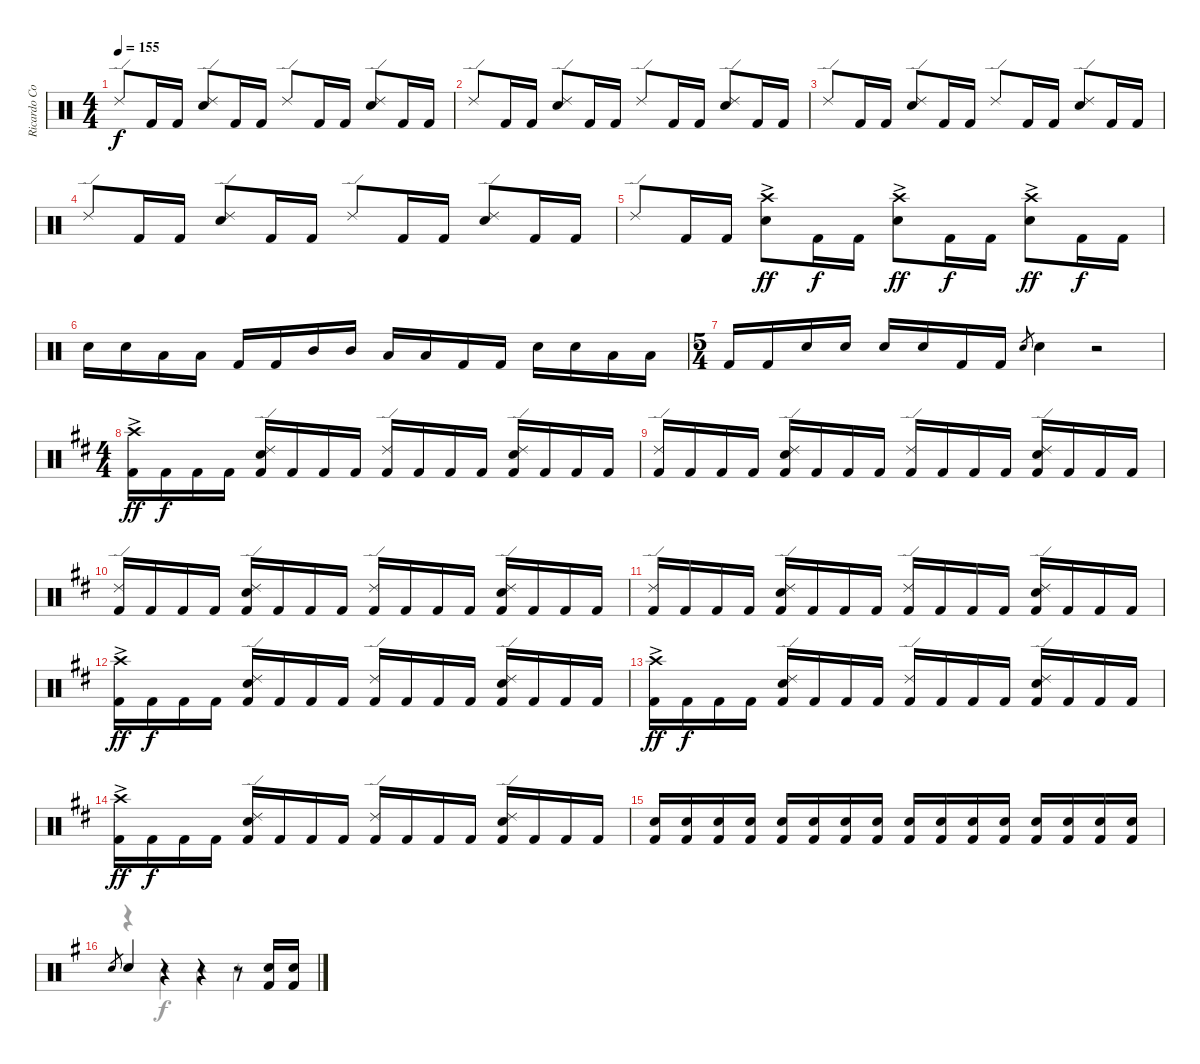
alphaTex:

\track ("Ricardo Confessori" "Ricardo Co") {instrument percussion}
\staff {score}
\articulation defaults
\voice
\ts (4 4)
\tempo 155
\clef neutral
\ks aminor "Ride (edge) 2".8{dy f} "Kick (hit) 2".16 "Kick (hit) 2".16
("Electric Snare (hit)" "Ride (edge) 2").8 "Kick (hit) 2".16 "Kick (hit) 2".16 "Ride (edge) 2".8 "Kick (hit) 2".16 "Kick (hit) 2".16 ("Electric Snare (hit)" "Ride (edge) 2").8 "Kick (hit) 2".16 "Kick (hit) 2".16 |
"Ride (edge) 2".8 "Kick (hit) 2".16 "Kick (hit) 2".16 ("Electric Snare (hit)" "Ride (edge) 2").8 "Kick (hit) 2".16 "Kick (hit) 2".16 "Ride (edge) 2".8 "Kick (hit) 2".16 "Kick (hit) 2".16 ("Electric Snare (hit)" "Ride (edge) 2").8 "Kick (hit) 2".16 "Kick (hit) 2".16 |
"Ride (edge) 2".8 "Kick (hit) 2".16 "Kick (hit) 2".16 ("Electric Snare (hit)" "Ride (edge) 2").8 "Kick (hit) 2".16 "Kick (hit) 2".16 "Ride (edge) 2".8 "Kick (hit) 2".16 "Kick (hit) 2".16 ("Electric Snare (hit)" "Ride (edge) 2").8 "Kick (hit) 2".16 "Kick (hit) 2".16 |
"Ride (edge) 2".8 "Kick (hit) 2".16 "Kick (hit) 2".16 ("Electric Snare (hit)" "Ride (edge) 2").8 "Kick (hit) 2".16 "Kick (hit) 2".16 "Ride (edge) 2".8 "Kick (hit) 2".16 "Kick (hit) 2".16 ("Electric Snare (hit)" "Ride (edge) 2").8 "Kick (hit) 2".16 "Kick (hit) 2".16 |
"Ride (edge) 2".8 "Kick (hit) 2".16 "Kick (hit) 2".16 ("Electric Snare (hit)"{ac} "Crash high (hit)"{ac}).8{dy ff} "Kick (hit) 2".16{dy f} "Kick (hit) 2".16 ("Electric Snare (hit)"{ac} "Crash high (hit)"{ac}).8{dy ff} "Kick (hit) 2".16{dy f} "Kick (hit) 2".16 ("Electric Snare (hit)"{ac} "Crash high (hit)"{ac}).8{dy ff} "Kick (hit) 2".16{dy f} "Kick (hit) 2".16 |
"Electric Snare (hit)".16 "Electric Snare (hit)".16 "Low Tom (hit)".16 "Low Tom (hit)".16 "Kick (hit) 2".16 "Kick (hit) 2".16 "Mid Tom (hit)".16 "Mid Tom (hit)".16 "Low Tom (hit)".16 "Low Tom (hit)".16 "Kick (hit) 2".16 "Kick (hit) 2".16 "Electric Snare (hit)".16 "Electric Snare (hit)".16 "Low Tom (hit)".16 "Low Tom (hit)".16 |
\ts (5 4)
"Kick (hit) 2".16 "Kick (hit) 2".16 "Electric Snare (hit)".16 "Electric Snare (hit)".16 "Electric Snare (hit)".16 "Electric Snare (hit)".16 "Kick (hit) 2".16 "Kick (hit) 2".16 "Electric Snare (hit)".8{gr} "Electric Snare (hit)".4 r.2 |
\ts (4 4)
\ks d
("Crash high (hit)"{ac} "Kick (hit) 2"{ac}).16{dy ff} "Kick (hit) 2".16{dy f} "Kick (hit) 2".16 "Kick (hit) 2".16 ("Kick (hit) 2" "Electric Snare (hit)" "Ride (edge) 2").16 "Kick (hit) 2".16 "Kick (hit) 2".16 "Kick (hit) 2".16 ("Kick (hit) 2" "Ride (edge) 2").16 "Kick (hit) 2".16 "Kick (hit) 2".16 "Kick (hit) 2".16 ("Kick (hit) 2" "Electric Snare (hit)" "Ride (edge) 2").16 "Kick (hit) 2".16 "Kick (hit) 2".16 "Kick (hit) 2".16 |
("Ride (edge) 2" "Kick (hit) 2").16 "Kick (hit) 2".16 "Kick (hit) 2".16 "Kick (hit) 2".16 ("Kick (hit) 2" "Electric Snare (hit)" "Ride (edge) 2").16 "Kick (hit) 2".16 "Kick (hit) 2".16 "Kick (hit) 2".16 ("Kick (hit) 2" "Ride (edge) 2").16 "Kick (hit) 2".16 "Kick (hit) 2".16 "Kick (hit) 2".16 ("Kick (hit) 2" "Electric Snare (hit)" "Ride (edge) 2").16 "Kick (hit) 2".16 "Kick (hit) 2".16 "Kick (hit) 2".16 |
("Ride (edge) 2" "Kick (hit) 2").16 "Kick (hit) 2".16 "Kick (hit) 2".16 "Kick (hit) 2".16 ("Kick (hit) 2" "Electric Snare (hit)" "Ride (edge) 2").16 "Kick (hit) 2".16 "Kick (hit) 2".16 "Kick (hit) 2".16 ("Kick (hit) 2" "Ride (edge) 2").16 "Kick (hit) 2".16 "Kick (hit) 2".16 "Kick (hit) 2".16 ("Kick (hit) 2" "Electric Snare (hit)" "Ride (edge) 2").16 "Kick (hit) 2".16 "Kick (hit) 2".16 "Kick (hit) 2".16 |
("Ride (edge) 2" "Kick (hit) 2").16 "Kick (hit) 2".16 "Kick (hit) 2".16 "Kick (hit) 2".16 ("Kick (hit) 2" "Electric Snare (hit)" "Ride (edge) 2").16 "Kick (hit) 2".16 "Kick (hit) 2".16 "Kick (hit) 2".16 ("Kick (hit) 2" "Ride (edge) 2").16 "Kick (hit) 2".16 "Kick (hit) 2".16 "Kick (hit) 2".16 ("Kick (hit) 2" "Electric Snare (hit)" "Ride (edge) 2").16 "Kick (hit) 2".16 "Kick (hit) 2".16 "Kick (hit) 2".16 |
("Crash high (hit)"{ac} "Kick (hit) 2"{ac}).16{dy ff} "Kick (hit) 2".16{dy f} "Kick (hit) 2".16 "Kick (hit) 2".16 ("Kick (hit) 2" "Electric Snare (hit)" "Ride (edge) 2").16 "Kick (hit) 2".16 "Kick (hit) 2".16 "Kick (hit) 2".16 ("Kick (hit) 2" "Ride (edge) 2").16 "Kick (hit) 2".16 "Kick (hit) 2".16 "Kick (hit) 2".16 ("Kick (hit) 2" "Electric Snare (hit)" "Ride (edge) 2").16 "Kick (hit) 2".16 "Kick (hit) 2".16 "Kick (hit) 2".16 |
("Crash high (hit)"{ac} "Kick (hit) 2"{ac}).16{dy ff} "Kick (hit) 2".16{dy f} "Kick (hit) 2".16 "Kick (hit) 2".16 ("Kick (hit) 2" "Electric Snare (hit)" "Ride (edge) 2").16 "Kick (hit) 2".16 "Kick (hit) 2".16 "Kick (hit) 2".16 ("Kick (hit) 2" "Ride (edge) 2").16 "Kick (hit) 2".16 "Kick (hit) 2".16 "Kick (hit) 2".16 ("Kick (hit) 2" "Electric Snare (hit)" "Ride (edge) 2").16 "Kick (hit) 2".16 "Kick (hit) 2".16 "Kick (hit) 2".16 |
("Crash high (hit)"{ac} "Kick (hit) 2"{ac}).16{dy ff} "Kick (hit) 2".16{dy f} "Kick (hit) 2".16 "Kick (hit) 2".16 ("Kick (hit) 2" "Electric Snare (hit)" "Ride (edge) 2").16 "Kick (hit) 2".16 "Kick (hit) 2".16 "Kick (hit) 2".16 ("Kick (hit) 2" "Ride (edge) 2").16 "Kick (hit) 2".16 "Kick (hit) 2".16 "Kick (hit) 2".16 ("Kick (hit) 2" "Electric Snare (hit)" "Ride (edge) 2").16 "Kick (hit) 2".16 "Kick (hit) 2".16 "Kick (hit) 2".16 |
("Electric Snare (hit)" "Kick (hit) 2").16 ("Kick (hit) 2" "Electric Snare (hit)").16 ("Kick (hit) 2" "Electric Snare (hit)").16 ("Kick (hit) 2" "Electric Snare (hit)").16 ("Kick (hit) 2" "Electric Snare (hit)").16 ("Kick (hit) 2" "Electric Snare (hit)").16 ("Kick (hit) 2" "Electric Snare (hit)").16 ("Kick (hit) 2" "Electric Snare (hit)").16 ("Kick (hit) 2" "Electric Snare (hit)").16 ("Kick (hit) 2" "Electric Snare (hit)").16 ("Kick (hit) 2" "Electric Snare (hit)").16 ("Kick (hit) 2" "Electric Snare (hit)").16 ("Kick (hit) 2" "Electric Snare (hit)").16 ("Kick (hit) 2" "Electric Snare (hit)").16 ("Kick (hit) 2" "Electric Snare (hit)").16 ("Kick (hit) 2" "Electric Snare (hit)").16 |
\ks g "Electric Snare (hit)".8{gr} "Electric Snare (hit)".4
r.4 r.4 r.8 ("Electric Snare (hit)" "Kick (hit) 2").16 ("Electric Snare (hit)" "Kick (hit) 2").16
\voice
\clef neutral
\ottava regular
\simile none
\ks aminor
|
|
|
|
|
|
|
\ks d
|
|
|
|
|
|
|
|
\ks g
r.4 "Tambourine (hit)".4 "Tambourine (hit)".4 "Tambourine (hit)".4
